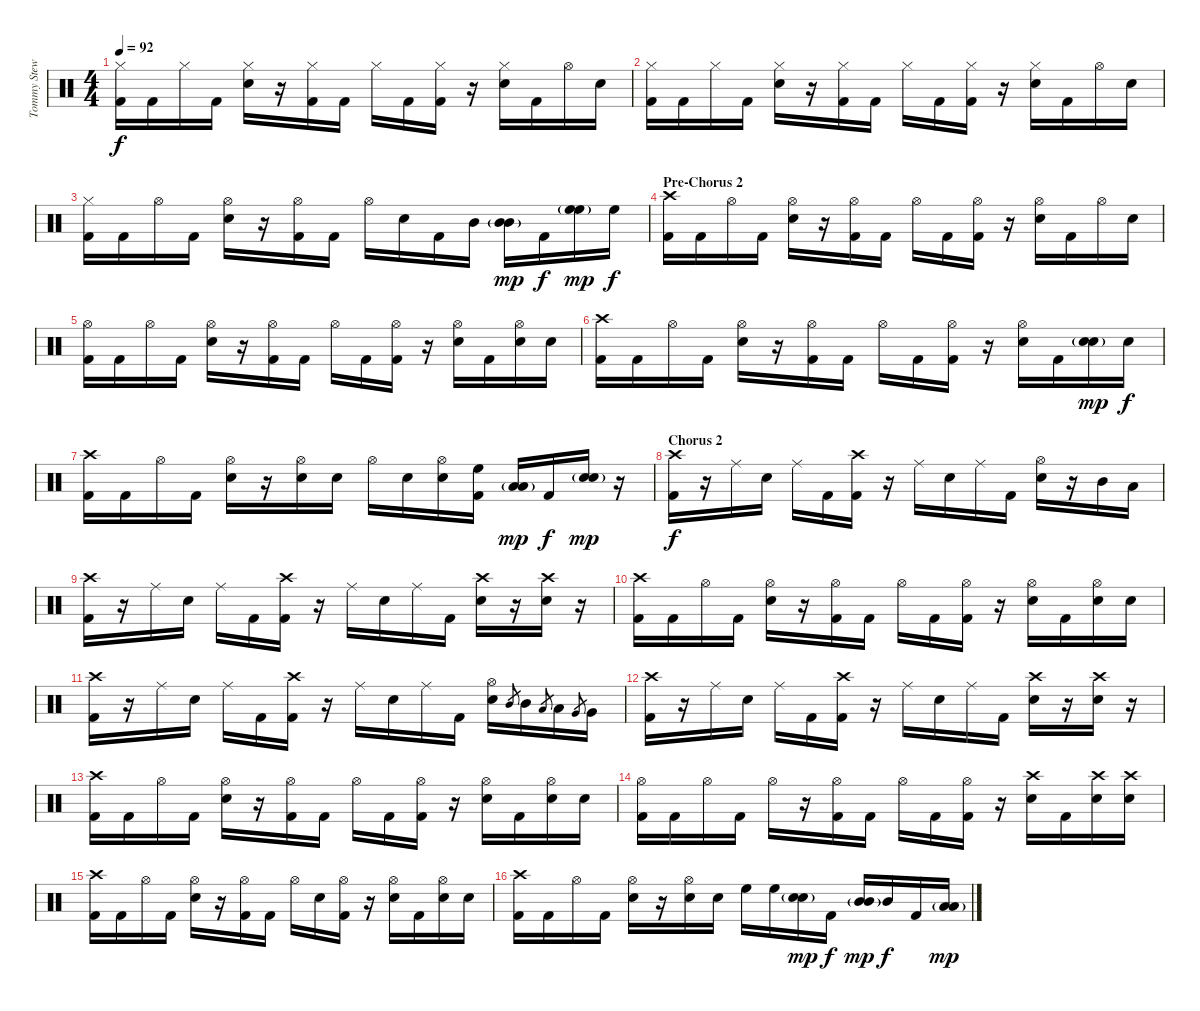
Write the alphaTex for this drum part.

\track ("Tommy Stewart - Drums" "Tommy Stew") {instrument percussion}
\staff {score}
\articulation defaults
\ts (4 4)
\tempo 92
\clef neutral
\ks c
("Hi-Hat (closed)" "Kick (hit) 2").16{dy f} "Kick (hit) 2".16 "Hi-Hat (closed)".16 "Kick (hit) 2".16 ("Hi-Hat (closed)" "Snare (hit) 2").16 r.16 ("Hi-Hat (closed)" "Kick (hit) 2").16 "Kick (hit) 2".16 "Hi-Hat (closed)".16 "Kick (hit) 2".16 ("Hi-Hat (closed)" "Kick (hit) 2").16 r.16 ("Hi-Hat (closed)" "Snare (hit) 2").16 "Kick (hit) 2".16 "Hi-Hat (open)".16 "Snare (hit) 2".16 |
("Hi-Hat (closed)" "Kick (hit) 2").16 "Kick (hit) 2".16 "Hi-Hat (closed)".16 "Kick (hit) 2".16 ("Hi-Hat (closed)" "Snare (hit) 2").16 r.16 ("Hi-Hat (closed)" "Kick (hit) 2").16 "Kick (hit) 2".16 "Hi-Hat (closed)".16 "Kick (hit) 2".16 ("Hi-Hat (closed)" "Kick (hit) 2").16 r.16 ("Hi-Hat (closed)" "Snare (hit) 2").16 "Kick (hit) 2".16 "Hi-Hat (open)".16 "Snare (hit) 2".16 |
("Hi-Hat (closed)" "Kick (hit) 2").16 "Kick (hit) 2".16 "Hi-Hat (open)".16 "Kick (hit) 2".16 ("Hi-Hat (open)" "Snare (hit) 2").16 r.16 ("Hi-Hat (open)" "Kick (hit) 2").16 "Kick (hit) 2".16 "Hi-Hat (open)".16 "Snare (hit) 2".16 "Kick (hit) 2".16 "Mid Tom (hit)".16 ("Mid Tom (hit)"{g} "Mid Tom (hit)").16{dy mp} "Kick (hit) 2".16{dy f} ("High Floor Tom (hit)"{g} "High Floor Tom (hit)").16{dy mp} "High Floor Tom (hit)".16{dy f} |
\section ("" "Pre-Chorus 2")
("Crash high (hit)" "Kick (hit) 2").16 "Kick (hit) 2".16 "Hi-Hat (open)".16 "Kick (hit) 2".16 ("Hi-Hat (open)" "Snare (hit) 2").16 r.16 ("Hi-Hat (open)" "Kick (hit) 2").16 "Kick (hit) 2".16 "Hi-Hat (open)".16 "Kick (hit) 2".16 ("Hi-Hat (open)" "Kick (hit) 2").16 r.16 ("Hi-Hat (open)" "Snare (hit) 2").16 "Kick (hit) 2".16 "Hi-Hat (open)".16 "Snare (hit) 2".16 |
("Hi-Hat (open)" "Kick (hit) 2").16 "Kick (hit) 2".16 "Hi-Hat (open)".16 "Kick (hit) 2".16 ("Hi-Hat (open)" "Snare (hit) 2").16 r.16 ("Hi-Hat (open)" "Kick (hit) 2").16 "Kick (hit) 2".16 "Hi-Hat (open)".16 "Kick (hit) 2".16 ("Hi-Hat (open)" "Kick (hit) 2").16 r.16 ("Hi-Hat (open)" "Snare (hit) 2").16 "Kick (hit) 2".16 ("Hi-Hat (open)" "Snare (hit) 2").16 "Snare (hit) 2".16 |
("Crash high (hit)" "Kick (hit) 2").16 "Kick (hit) 2".16 "Hi-Hat (open)".16 "Kick (hit) 2".16 ("Hi-Hat (open)" "Snare (hit) 2").16 r.16 ("Hi-Hat (open)" "Kick (hit) 2").16 "Kick (hit) 2".16 "Hi-Hat (open)".16 "Kick (hit) 2".16 ("Hi-Hat (open)" "Kick (hit) 2").16 r.16 ("Hi-Hat (open)" "Snare (hit) 2").16 "Kick (hit) 2".16 ("Snare (hit) 2"{g} "Snare (hit) 2").16{dy mp} "Snare (hit) 2".16{dy f} |
("Crash high (hit)" "Kick (hit) 2").16 "Kick (hit) 2".16 "Hi-Hat (open)".16 "Kick (hit) 2".16 ("Hi-Hat (open)" "Snare (hit) 2").16 r.16 ("Hi-Hat (open)" "Snare (hit) 2").16 "Snare (hit) 2".16 "Hi-Hat (open)".16 "Snare (hit) 2".16 ("Hi-Hat (open)" "Snare (hit) 2").16 ("High Floor Tom (hit)" "Kick (hit) 2").16 ("Low Floor Tom (hit)"{g} "Low Floor Tom (hit)").16{dy mp} "Kick (hit) 2".16{dy f} ("Snare (hit) 2"{g} "Snare (hit) 2").16{dy mp} r.16 |
\section ("" "Chorus 2")
("Crash high (hit)" "Kick (hit) 2").16{dy f} r.16 "Ride (middle)".16 "Snare (hit) 2".16 "Ride (middle)".16 "Kick (hit) 2".16 ("Crash high (hit)" "Kick (hit) 2").16 r.16 "Ride (middle)".16 "Snare (hit) 2".16 "Ride (middle)".16 "Kick (hit) 2".16 ("Hi-Hat (open)" "Snare (hit) 2").16 r.16 "Mid Tom (hit)".16 "Low Tom (hit)".16 |
("Crash high (hit)" "Kick (hit) 2").16 r.16 "Ride (middle)".16 "Snare (hit) 2".16 "Ride (middle)".16 "Kick (hit) 2".16 ("Crash high (hit)" "Kick (hit) 2").16 r.16 "Ride (middle)".16 "Snare (hit) 2".16 "Ride (middle)".16 "Kick (hit) 2".16 ("Crash high (hit)" "Snare (hit) 2").16 r.16 ("Crash high (hit)" "Snare (hit) 2").16 r.16 |
("Crash high (hit)" "Kick (hit) 2").16 "Kick (hit) 2".16 "Hi-Hat (open)".16 "Kick (hit) 2".16 ("Hi-Hat (open)" "Snare (hit) 2").16 r.16 ("Hi-Hat (open)" "Kick (hit) 2").16 "Kick (hit) 2".16 "Hi-Hat (open)".16 "Kick (hit) 2".16 ("Hi-Hat (open)" "Kick (hit) 2").16 r.16 ("Hi-Hat (open)" "Snare (hit) 2").16 "Kick (hit) 2".16 ("Hi-Hat (open)" "Snare (hit) 2").16 "Snare (hit) 2".16 |
("Crash high (hit)" "Kick (hit) 2").16 r.16 "Ride (middle)".16 "Snare (hit) 2".16 "Ride (middle)".16 "Kick (hit) 2".16 ("Crash high (hit)" "Kick (hit) 2").16 r.16 "Ride (middle)".16 "Snare (hit) 2".16 "Ride (middle)".16 "Kick (hit) 2".16 ("Hi-Hat (open)" "Snare (hit) 2").16 "Mid Tom (hit)".8{gr} "Mid Tom (hit)".16 "Low Tom (hit)".8{gr} "Low Tom (hit)".16 "Very Low Tom (hit)".8{gr} "Very Low Tom (hit)".16 |
("Crash high (hit)" "Kick (hit) 2").16 r.16 "Ride (middle)".16 "Snare (hit) 2".16 "Ride (middle)".16 "Kick (hit) 2".16 ("Crash high (hit)" "Kick (hit) 2").16 r.16 "Ride (middle)".16 "Snare (hit) 2".16 "Ride (middle)".16 "Kick (hit) 2".16 ("Crash high (hit)" "Snare (hit) 2").16 r.16 ("Crash high (hit)" "Snare (hit) 2").16 r.16 |
("Crash high (hit)" "Kick (hit) 2").16 "Kick (hit) 2".16 "Hi-Hat (open)".16 "Kick (hit) 2".16 ("Hi-Hat (open)" "Snare (hit) 2").16 r.16 ("Hi-Hat (open)" "Kick (hit) 2").16 "Kick (hit) 2".16 "Hi-Hat (open)".16 "Kick (hit) 2".16 ("Hi-Hat (open)" "Kick (hit) 2").16 r.16 ("Hi-Hat (open)" "Snare (hit) 2").16 "Kick (hit) 2".16 ("Hi-Hat (open)" "Snare (hit) 2").16 "Snare (hit) 2".16 |
("Hi-Hat (open)" "Kick (hit) 2").16 "Kick (hit) 2".16 "Hi-Hat (open)".16 "Kick (hit) 2".16 "Hi-Hat (open)".16 r.16 ("Hi-Hat (open)" "Kick (hit) 2").16 "Kick (hit) 2".16 "Hi-Hat (open)".16 "Kick (hit) 2".16 ("Hi-Hat (open)" "Kick (hit) 2").16 r.16 ("Crash high (hit)" "Snare (hit) 2").16 "Kick (hit) 2".16 ("Crash high (hit)" "Snare (hit) 2").16 ("Crash high (hit)" "Snare (hit) 2").16 |
("Crash high (hit)" "Kick (hit) 2").16 "Kick (hit) 2".16 "Hi-Hat (open)".16 "Kick (hit) 2".16 ("Hi-Hat (open)" "Snare (hit) 2").16 r.16 ("Hi-Hat (open)" "Kick (hit) 2").16 "Kick (hit) 2".16 "Hi-Hat (open)".16 "Snare (hit) 2".16 ("Hi-Hat (open)" "Kick (hit) 2").16 r.16 ("Hi-Hat (open)" "Snare (hit) 2").16 "Kick (hit) 2".16 ("Hi-Hat (open)" "Snare (hit) 2").16 "Snare (hit) 2".16 |
("Crash high (hit)" "Kick (hit) 2").16 "Kick (hit) 2".16 "Hi-Hat (open)".16 "Kick (hit) 2".16 ("Hi-Hat (open)" "Snare (hit) 2").16 r.16 ("Hi-Hat (open)" "Snare (hit) 2").16 "Snare (hit) 2".16 "High Floor Tom (hit)".16 "High Floor Tom (hit)".16 ("Snare (hit) 2"{g} "Snare (hit) 2").16{dy mp} "Kick (hit) 2".16{dy f} ("Mid Tom (hit)"{g} "Mid Tom (hit)").16{dy mp} "Mid Tom (hit)".16{dy f} "Kick (hit) 2".16 ("Low Floor Tom (hit)"{g} "Low Floor Tom (hit)").16{dy mp}
